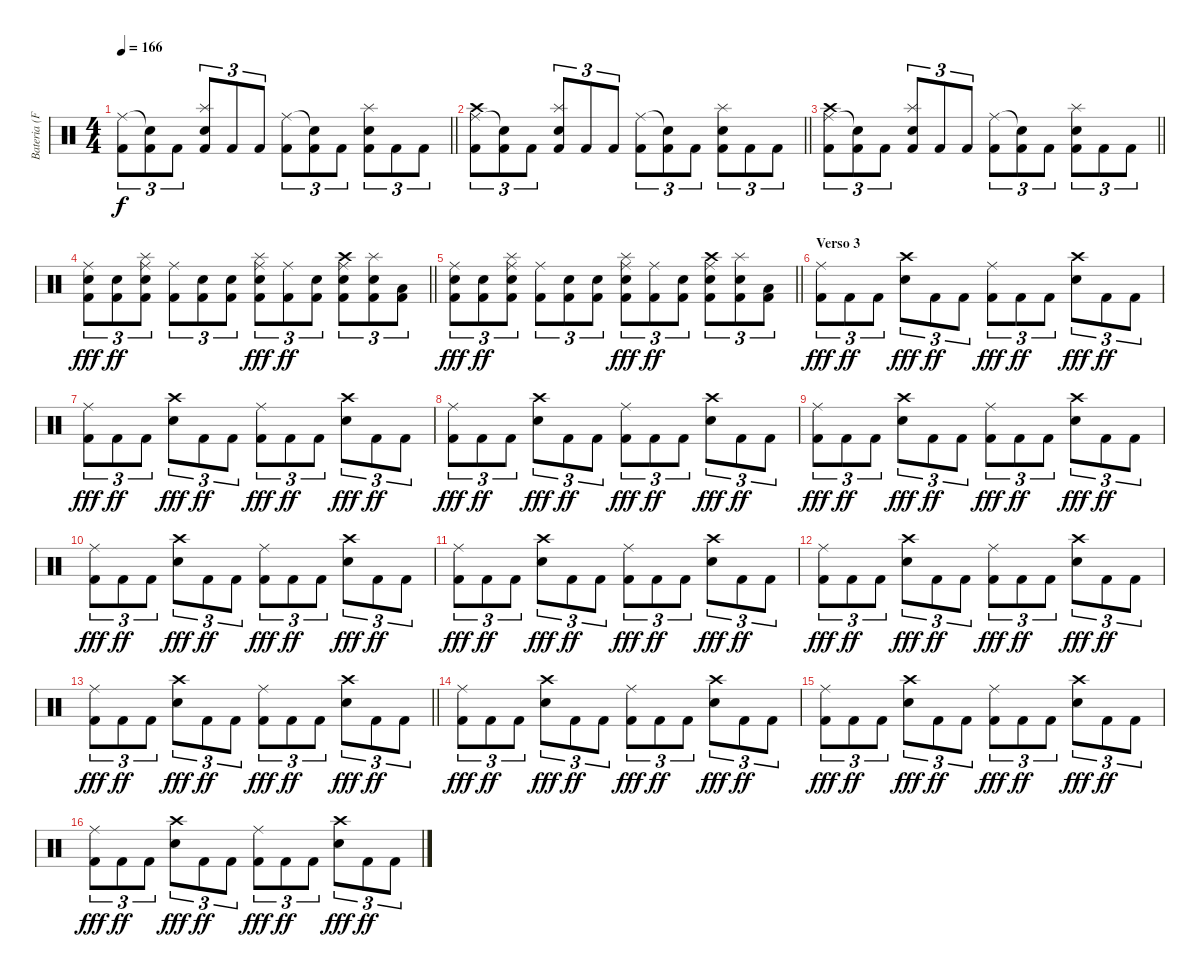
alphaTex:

\track ("Bateria (Fernando Scarcella)" "Bateria (F") {instrument percussion}
\staff {score}
\articulation defaults
\ts (4 4)
\tempo 166
\clef neutral
\barLineRight lightlight
\ks c
("Kick (hit) 2" "Ride (middle)").8{tu (3 2) dy f} ("Kick (hit) 2" "Snare (hit)"{t}).8{tu (3 2)} "Kick (hit) 2".8{tu (3 2)} ("Kick (hit) 2" "Splash (hit)" "Electric Snare (hit)").8{tu (3 2)} "Kick (hit) 2".8{tu (3 2)} "Kick (hit) 2".8{tu (3 2)} ("Kick (hit) 2" "Ride (middle)").8{tu (3 2)} ("Kick (hit) 2" "Snare (hit)"{t}).8{tu (3 2)} "Kick (hit) 2".8{tu (3 2)} ("Kick (hit) 2" "Splash (hit)" "Snare (hit) 2").8{tu (3 2)} "Kick (hit) 2".8{tu (3 2)} "Kick (hit) 2".8{tu (3 2)} |
\barLineRight lightlight
("Kick (hit) 2" "Ride (middle)" "Crash high (hit)").8{tu (3 2)} ("Kick (hit) 2" "Snare (hit)"{t}).8{tu (3 2)} "Kick (hit) 2".8{tu (3 2)} ("Kick (hit) 2" "Splash (hit)" "Electric Snare (hit)").8{tu (3 2)} "Kick (hit) 2".8{tu (3 2)} "Kick (hit) 2".8{tu (3 2)} ("Kick (hit) 2" "Ride (middle)").8{tu (3 2)} ("Kick (hit) 2" "Snare (hit)"{t}).8{tu (3 2)} "Kick (hit) 2".8{tu (3 2)} ("Kick (hit) 2" "Splash (hit)" "Snare (hit) 2").8{tu (3 2)} "Kick (hit) 2".8{tu (3 2)} "Kick (hit) 2".8{tu (3 2)} |
\barLineRight lightlight
("Kick (hit) 2" "Ride (middle)" "Crash high (hit)").8{tu (3 2)} ("Kick (hit) 2" "Snare (hit)"{t}).8{tu (3 2)} "Kick (hit) 2".8{tu (3 2)} ("Kick (hit) 2" "Splash (hit)" "Electric Snare (hit)").8{tu (3 2)} "Kick (hit) 2".8{tu (3 2)} "Kick (hit) 2".8{tu (3 2)} ("Kick (hit) 2" "Ride (middle)").8{tu (3 2)} ("Kick (hit) 2" "Snare (hit)"{t}).8{tu (3 2)} "Kick (hit) 2".8{tu (3 2)} ("Kick (hit) 2" "Splash (hit)" "Snare (hit) 2").8{tu (3 2)} "Kick (hit) 2".8{tu (3 2)} "Kick (hit) 2".8{tu (3 2)} |
\barLineRight lightlight
("Kick (hit) 2" "Ride (middle)" "Electric Snare (hit)").8{tu (3 2) dy fff} ("Kick (hit) 2" "Electric Snare (hit)").8{tu (3 2) dy ff} ("Kick (hit) 2" "Splash (hit)" "Ride (middle)" "Snare (hit) 2").8{tu (3 2)} ("Kick (hit) 2" "Ride (middle)").8{tu (3 2)} ("Kick (hit) 2" "Electric Snare (hit)").8{tu (3 2)} ("Kick (hit) 2" "Electric Snare (hit)").8{tu (3 2)} ("Kick (hit) 2" "Ride (middle)" "Snare (hit) 2" "Splash (hit)").8{tu (3 2) dy fff} ("Kick (hit) 2" "Ride (middle)").8{tu (3 2) dy ff} ("Kick (hit) 2" "Electric Snare (hit)").8{tu (3 2)} ("Kick (hit) 2" "Crash high (hit)" "Ride (middle)" "Electric Snare (hit)").8{tu (3 2)} ("Kick (hit) 2" "Snare (hit) 2" "Splash (hit)").8{tu (3 2)} ("Kick (hit) 2" "Low Floor Tom (hit)").8{tu (3 2)} |
\barLineRight lightlight
("Kick (hit) 2" "Ride (middle)" "Electric Snare (hit)").8{tu (3 2) dy fff} ("Kick (hit) 2" "Electric Snare (hit)").8{tu (3 2) dy ff} ("Kick (hit) 2" "Splash (hit)" "Ride (middle)" "Snare (hit) 2").8{tu (3 2)} ("Kick (hit) 2" "Ride (middle)").8{tu (3 2)} ("Kick (hit) 2" "Electric Snare (hit)").8{tu (3 2)} ("Kick (hit) 2" "Electric Snare (hit)").8{tu (3 2)} ("Kick (hit) 2" "Ride (middle)" "Snare (hit) 2" "Splash (hit)").8{tu (3 2) dy fff} ("Kick (hit) 2" "Ride (middle)").8{tu (3 2) dy ff} ("Kick (hit) 2" "Electric Snare (hit)").8{tu (3 2)} ("Kick (hit) 2" "Crash high (hit)" "Ride (middle)" "Electric Snare (hit)").8{tu (3 2)} ("Kick (hit) 2" "Snare (hit) 2" "Splash (hit)").8{tu (3 2)} ("Kick (hit) 2" "Low Floor Tom (hit)").8{tu (3 2)} |
\section ("" "Verso 3")
("Kick (hit) 2" "Ride (middle)").8{tu (3 2) dy fff} "Kick (hit) 2".8{tu (3 2) dy ff} "Kick (hit) 2".8{tu (3 2)} ("Electric Snare (hit)" "Crash high (hit)").8{tu (3 2) dy fff} "Kick (hit) 2".8{tu (3 2) dy ff} "Kick (hit) 2".8{tu (3 2)} ("Kick (hit) 2" "Ride (middle)").8{tu (3 2) dy fff} "Kick (hit) 2".8{tu (3 2) dy ff} "Kick (hit) 2".8{tu (3 2)} ("Electric Snare (hit)" "Crash high (hit)").8{tu (3 2) dy fff} "Kick (hit) 2".8{tu (3 2) dy ff} "Kick (hit) 2".8{tu (3 2)} |
("Kick (hit) 2" "Ride (middle)").8{tu (3 2) dy fff} "Kick (hit) 2".8{tu (3 2) dy ff} "Kick (hit) 2".8{tu (3 2)} ("Electric Snare (hit)" "Crash high (hit)").8{tu (3 2) dy fff} "Kick (hit) 2".8{tu (3 2) dy ff} "Kick (hit) 2".8{tu (3 2)} ("Kick (hit) 2" "Ride (middle)").8{tu (3 2) dy fff} "Kick (hit) 2".8{tu (3 2) dy ff} "Kick (hit) 2".8{tu (3 2)} ("Electric Snare (hit)" "Crash high (hit)").8{tu (3 2) dy fff} "Kick (hit) 2".8{tu (3 2) dy ff} "Kick (hit) 2".8{tu (3 2)} |
("Kick (hit) 2" "Ride (middle)").8{tu (3 2) dy fff} "Kick (hit) 2".8{tu (3 2) dy ff} "Kick (hit) 2".8{tu (3 2)} ("Electric Snare (hit)" "Crash high (hit)").8{tu (3 2) dy fff} "Kick (hit) 2".8{tu (3 2) dy ff} "Kick (hit) 2".8{tu (3 2)} ("Kick (hit) 2" "Ride (middle)").8{tu (3 2) dy fff} "Kick (hit) 2".8{tu (3 2) dy ff} "Kick (hit) 2".8{tu (3 2)} ("Electric Snare (hit)" "Crash high (hit)").8{tu (3 2) dy fff} "Kick (hit) 2".8{tu (3 2) dy ff} "Kick (hit) 2".8{tu (3 2)} |
("Kick (hit) 2" "Ride (middle)").8{tu (3 2) dy fff} "Kick (hit) 2".8{tu (3 2) dy ff} "Kick (hit) 2".8{tu (3 2)} ("Electric Snare (hit)" "Crash high (hit)").8{tu (3 2) dy fff} "Kick (hit) 2".8{tu (3 2) dy ff} "Kick (hit) 2".8{tu (3 2)} ("Kick (hit) 2" "Ride (middle)").8{tu (3 2) dy fff} "Kick (hit) 2".8{tu (3 2) dy ff} "Kick (hit) 2".8{tu (3 2)} ("Electric Snare (hit)" "Crash high (hit)").8{tu (3 2) dy fff} "Kick (hit) 2".8{tu (3 2) dy ff} "Kick (hit) 2".8{tu (3 2)} |
("Kick (hit) 2" "Ride (middle)").8{tu (3 2) dy fff} "Kick (hit) 2".8{tu (3 2) dy ff} "Kick (hit) 2".8{tu (3 2)} ("Electric Snare (hit)" "Crash high (hit)").8{tu (3 2) dy fff} "Kick (hit) 2".8{tu (3 2) dy ff} "Kick (hit) 2".8{tu (3 2)} ("Kick (hit) 2" "Ride (middle)").8{tu (3 2) dy fff} "Kick (hit) 2".8{tu (3 2) dy ff} "Kick (hit) 2".8{tu (3 2)} ("Electric Snare (hit)" "Crash high (hit)").8{tu (3 2) dy fff} "Kick (hit) 2".8{tu (3 2) dy ff} "Kick (hit) 2".8{tu (3 2)} |
("Kick (hit) 2" "Ride (middle)").8{tu (3 2) dy fff} "Kick (hit) 2".8{tu (3 2) dy ff} "Kick (hit) 2".8{tu (3 2)} ("Electric Snare (hit)" "Crash high (hit)").8{tu (3 2) dy fff} "Kick (hit) 2".8{tu (3 2) dy ff} "Kick (hit) 2".8{tu (3 2)} ("Kick (hit) 2" "Ride (middle)").8{tu (3 2) dy fff} "Kick (hit) 2".8{tu (3 2) dy ff} "Kick (hit) 2".8{tu (3 2)} ("Electric Snare (hit)" "Crash high (hit)").8{tu (3 2) dy fff} "Kick (hit) 2".8{tu (3 2) dy ff} "Kick (hit) 2".8{tu (3 2)} |
("Kick (hit) 2" "Ride (middle)").8{tu (3 2) dy fff} "Kick (hit) 2".8{tu (3 2) dy ff} "Kick (hit) 2".8{tu (3 2)} ("Electric Snare (hit)" "Crash high (hit)").8{tu (3 2) dy fff} "Kick (hit) 2".8{tu (3 2) dy ff} "Kick (hit) 2".8{tu (3 2)} ("Kick (hit) 2" "Ride (middle)").8{tu (3 2) dy fff} "Kick (hit) 2".8{tu (3 2) dy ff} "Kick (hit) 2".8{tu (3 2)} ("Electric Snare (hit)" "Crash high (hit)").8{tu (3 2) dy fff} "Kick (hit) 2".8{tu (3 2) dy ff} "Kick (hit) 2".8{tu (3 2)} |
\barLineRight lightlight
("Kick (hit) 2" "Ride (middle)").8{tu (3 2) dy fff} "Kick (hit) 2".8{tu (3 2) dy ff} "Kick (hit) 2".8{tu (3 2)} ("Electric Snare (hit)" "Crash high (hit)").8{tu (3 2) dy fff} "Kick (hit) 2".8{tu (3 2) dy ff} "Kick (hit) 2".8{tu (3 2)} ("Kick (hit) 2" "Ride (middle)").8{tu (3 2) dy fff} "Kick (hit) 2".8{tu (3 2) dy ff} "Kick (hit) 2".8{tu (3 2)} ("Electric Snare (hit)" "Crash high (hit)").8{tu (3 2) dy fff} "Kick (hit) 2".8{tu (3 2) dy ff} "Kick (hit) 2".8{tu (3 2)} |
("Kick (hit) 2" "Ride (middle)").8{tu (3 2) dy fff} "Kick (hit) 2".8{tu (3 2) dy ff} "Kick (hit) 2".8{tu (3 2)} ("Electric Snare (hit)" "Crash high (hit)").8{tu (3 2) dy fff} "Kick (hit) 2".8{tu (3 2) dy ff} "Kick (hit) 2".8{tu (3 2)} ("Kick (hit) 2" "Ride (middle)").8{tu (3 2) dy fff} "Kick (hit) 2".8{tu (3 2) dy ff} "Kick (hit) 2".8{tu (3 2)} ("Electric Snare (hit)" "Crash high (hit)").8{tu (3 2) dy fff} "Kick (hit) 2".8{tu (3 2) dy ff} "Kick (hit) 2".8{tu (3 2)} |
("Kick (hit) 2" "Ride (middle)").8{tu (3 2) dy fff} "Kick (hit) 2".8{tu (3 2) dy ff} "Kick (hit) 2".8{tu (3 2)} ("Electric Snare (hit)" "Crash high (hit)").8{tu (3 2) dy fff} "Kick (hit) 2".8{tu (3 2) dy ff} "Kick (hit) 2".8{tu (3 2)} ("Kick (hit) 2" "Ride (middle)").8{tu (3 2) dy fff} "Kick (hit) 2".8{tu (3 2) dy ff} "Kick (hit) 2".8{tu (3 2)} ("Electric Snare (hit)" "Crash high (hit)").8{tu (3 2) dy fff} "Kick (hit) 2".8{tu (3 2) dy ff} "Kick (hit) 2".8{tu (3 2)} |
("Kick (hit) 2" "Ride (middle)").8{tu (3 2) dy fff} "Kick (hit) 2".8{tu (3 2) dy ff} "Kick (hit) 2".8{tu (3 2)} ("Electric Snare (hit)" "Crash high (hit)").8{tu (3 2) dy fff} "Kick (hit) 2".8{tu (3 2) dy ff} "Kick (hit) 2".8{tu (3 2)} ("Kick (hit) 2" "Ride (middle)").8{tu (3 2) dy fff} "Kick (hit) 2".8{tu (3 2) dy ff} "Kick (hit) 2".8{tu (3 2)} ("Electric Snare (hit)" "Crash high (hit)").8{tu (3 2) dy fff} "Kick (hit) 2".8{tu (3 2) dy ff} "Kick (hit) 2".8{tu (3 2)}
